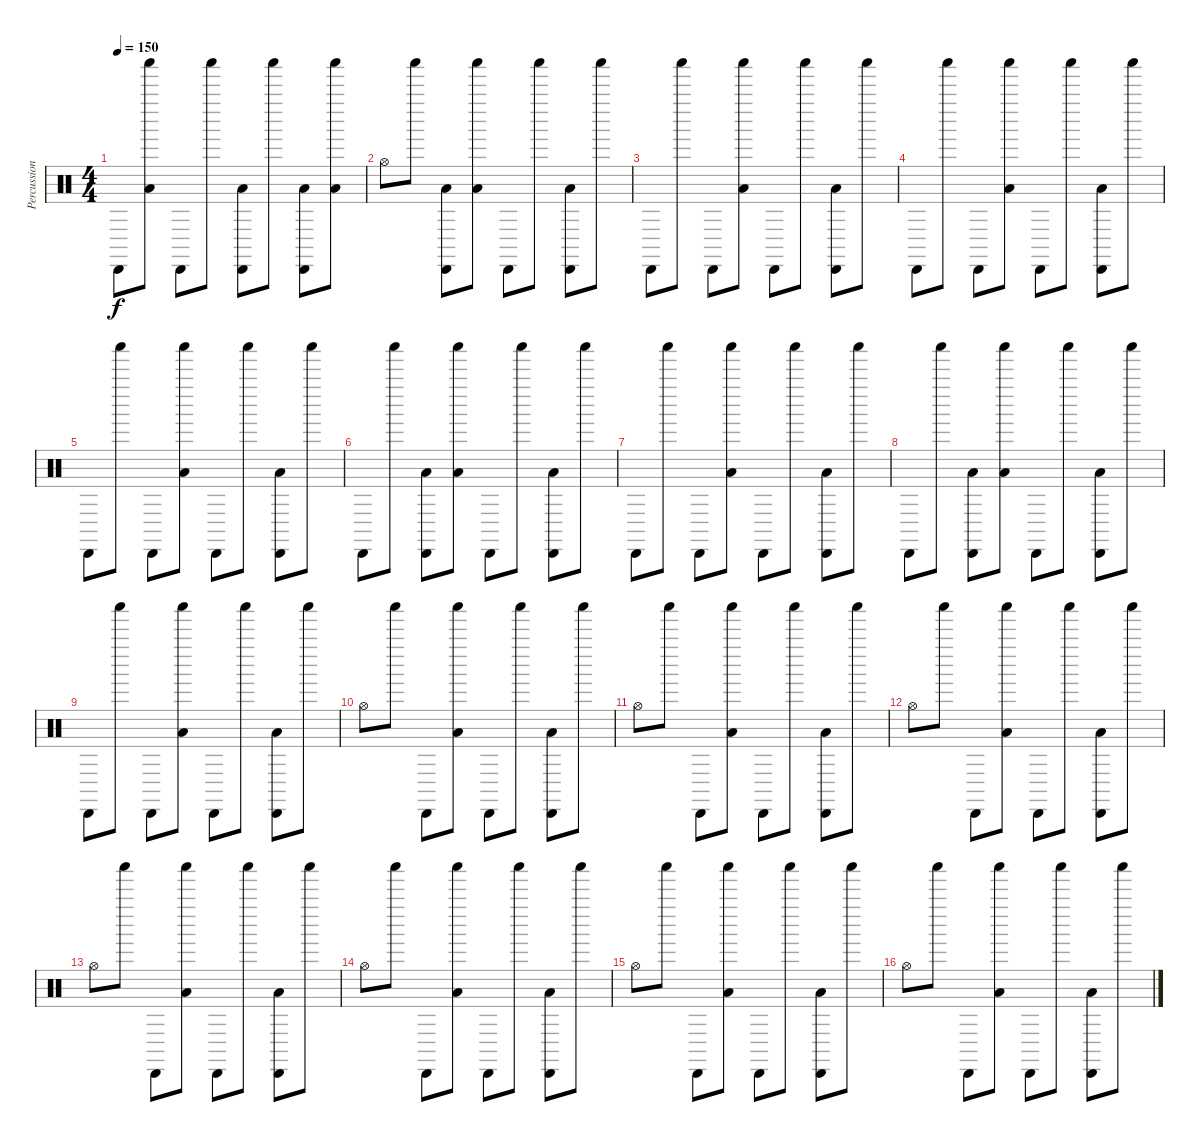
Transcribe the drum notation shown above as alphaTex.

\track ("Percussion" "Percussion") {instrument percussion}
\staff
\articulation defaults
\ts (4 4)
\tempo 150
\clef neutral
\ks c "Cabasa (hit)".8{dy f}
("Shaker (hit)" "Low Floor Tom (hit)").8 "Cabasa (hit)".8 "Shaker (hit)".8 ("Cabasa (hit)" "Low Floor Tom (hit)").8 "Shaker (hit)".8 ("Cabasa (hit)" "Low Floor Tom (hit)").8 ("Shaker (hit)" "Low Floor Tom (hit)").8 |
"Hi-Hat (open)".8 "Shaker (hit)".8 ("Cabasa (hit)" "Low Floor Tom (hit)").8 ("Shaker (hit)" "Low Floor Tom (hit)").8 "Cabasa (hit)".8 "Shaker (hit)".8 ("Cabasa (hit)" "Low Floor Tom (hit)").8 "Shaker (hit)".8 |
"Cabasa (hit)".8 "Shaker (hit)".8 "Cabasa (hit)".8 ("Shaker (hit)" "Low Floor Tom (hit)").8 "Cabasa (hit)".8 "Shaker (hit)".8 ("Cabasa (hit)" "Low Floor Tom (hit)").8 "Shaker (hit)".8 |
"Cabasa (hit)".8 "Shaker (hit)".8 "Cabasa (hit)".8 ("Shaker (hit)" "Low Floor Tom (hit)").8 "Cabasa (hit)".8 "Shaker (hit)".8 ("Cabasa (hit)" "Low Floor Tom (hit)").8 "Shaker (hit)".8 |
"Cabasa (hit)".8 "Shaker (hit)".8 "Cabasa (hit)".8 ("Shaker (hit)" "Low Floor Tom (hit)").8 "Cabasa (hit)".8 "Shaker (hit)".8 ("Cabasa (hit)" "Low Floor Tom (hit)").8 "Shaker (hit)".8 |
"Cabasa (hit)".8 "Shaker (hit)".8 ("Cabasa (hit)" "Low Floor Tom (hit)").8 ("Shaker (hit)" "Low Floor Tom (hit)").8 "Cabasa (hit)".8 "Shaker (hit)".8 ("Cabasa (hit)" "Low Floor Tom (hit)").8 "Shaker (hit)".8 |
"Cabasa (hit)".8 "Shaker (hit)".8 "Cabasa (hit)".8 ("Shaker (hit)" "Low Floor Tom (hit)").8 "Cabasa (hit)".8 "Shaker (hit)".8 ("Cabasa (hit)" "Low Floor Tom (hit)").8 "Shaker (hit)".8 |
"Cabasa (hit)".8 "Shaker (hit)".8 ("Cabasa (hit)" "Low Floor Tom (hit)").8 ("Shaker (hit)" "Low Floor Tom (hit)").8 "Cabasa (hit)".8 "Shaker (hit)".8 ("Cabasa (hit)" "Low Floor Tom (hit)").8 "Shaker (hit)".8 |
"Cabasa (hit)".8 "Shaker (hit)".8 "Cabasa (hit)".8 ("Shaker (hit)" "Low Floor Tom (hit)").8 "Cabasa (hit)".8 "Shaker (hit)".8 ("Cabasa (hit)" "Low Floor Tom (hit)").8 "Shaker (hit)".8 |
"Hi-Hat (open)".8 "Shaker (hit)".8 "Cabasa (hit)".8 ("Shaker (hit)" "Low Floor Tom (hit)").8 "Cabasa (hit)".8 "Shaker (hit)".8 ("Cabasa (hit)" "Low Floor Tom (hit)").8 "Shaker (hit)".8 |
"Hi-Hat (open)".8 "Shaker (hit)".8 "Cabasa (hit)".8 ("Shaker (hit)" "Low Floor Tom (hit)").8 "Cabasa (hit)".8 "Shaker (hit)".8 ("Cabasa (hit)" "Low Floor Tom (hit)").8 "Shaker (hit)".8 |
"Hi-Hat (open)".8 "Shaker (hit)".8 "Cabasa (hit)".8 ("Shaker (hit)" "Low Floor Tom (hit)").8 "Cabasa (hit)".8 "Shaker (hit)".8 ("Cabasa (hit)" "Low Floor Tom (hit)").8 "Shaker (hit)".8 |
"Hi-Hat (open)".8 "Shaker (hit)".8 "Cabasa (hit)".8 ("Shaker (hit)" "Low Floor Tom (hit)").8 "Cabasa (hit)".8 "Shaker (hit)".8 ("Cabasa (hit)" "Low Floor Tom (hit)").8 "Shaker (hit)".8 |
"Hi-Hat (open)".8 "Shaker (hit)".8 "Cabasa (hit)".8 ("Shaker (hit)" "Low Floor Tom (hit)").8 "Cabasa (hit)".8 "Shaker (hit)".8 ("Cabasa (hit)" "Low Floor Tom (hit)").8 "Shaker (hit)".8 |
"Hi-Hat (open)".8 "Shaker (hit)".8 "Cabasa (hit)".8 ("Shaker (hit)" "Low Floor Tom (hit)").8 "Cabasa (hit)".8 "Shaker (hit)".8 ("Cabasa (hit)" "Low Floor Tom (hit)").8 "Shaker (hit)".8 |
"Hi-Hat (open)".8 "Shaker (hit)".8 "Cabasa (hit)".8 ("Shaker (hit)" "Low Floor Tom (hit)").8 "Cabasa (hit)".8 "Shaker (hit)".8 ("Cabasa (hit)" "Low Floor Tom (hit)").8 "Shaker (hit)".8
